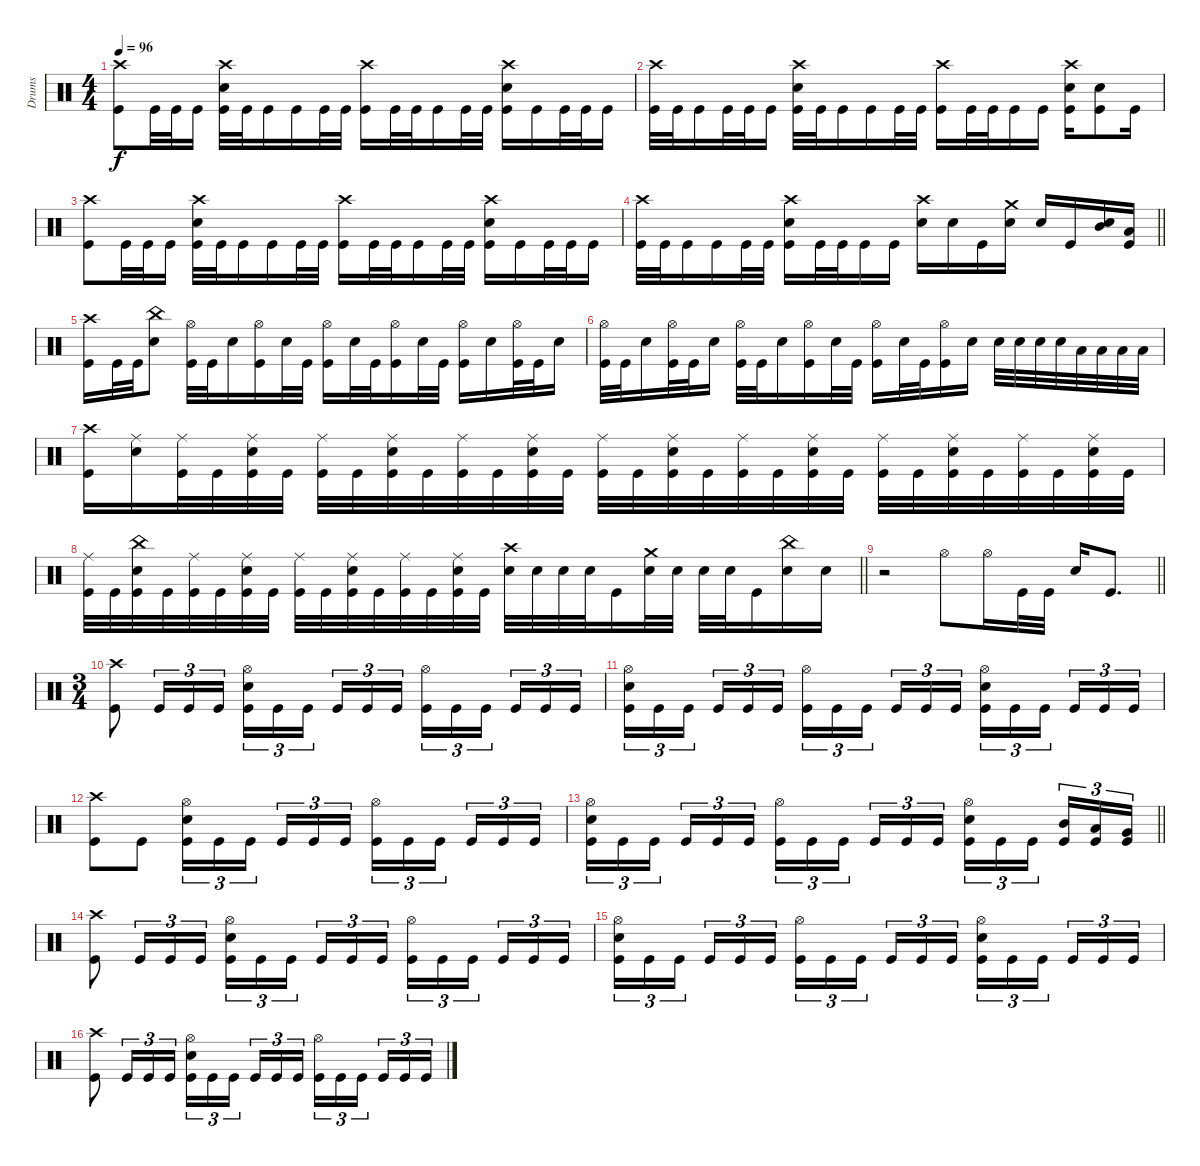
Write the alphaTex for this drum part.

\track ("Drums" "Drums") {instrument percussion}
\staff
\articulation defaults
\ts (4 4)
\section ("" "")
\tempo 96
\clef neutral
\ks c
("Crash high (hit)" "Kick (hit)").8{dy f} "Kick (hit)".32 "Kick (hit)".32 "Kick (hit)".16 ("Crash high (hit)" "Electric Snare (hit)" "Kick (hit)").32 "Kick (hit)".32 "Kick (hit)".16 "Kick (hit)".16 "Kick (hit)".32 "Kick (hit)".32 ("Crash high (hit)" "Kick (hit)").16 "Kick (hit)".32 "Kick (hit)".32 "Kick (hit)".16 "Kick (hit)".32 "Kick (hit)".32 ("Crash high (hit)" "Electric Snare (hit)" "Kick (hit)").16 "Kick (hit)".16 "Kick (hit)".32 "Kick (hit)".32 "Kick (hit)".16 |
("Crash high (hit)" "Kick (hit)").32 "Kick (hit)".32 "Kick (hit)".16 "Kick (hit)".32 "Kick (hit)".32 "Kick (hit)".16 ("Crash high (hit)" "Electric Snare (hit)" "Kick (hit)").32 "Kick (hit)".32 "Kick (hit)".16 "Kick (hit)".16 "Kick (hit)".32 "Kick (hit)".32 ("Crash high (hit)" "Kick (hit)").16 "Kick (hit)".32 "Kick (hit)".32 "Kick (hit)".16 "Kick (hit)".16 ("Crash high (hit)" "Electric Snare (hit)" "Kick (hit)").16 ("Electric Snare (hit)" "Kick (hit)").8 "Kick (hit)".16 |
("Crash high (hit)" "Kick (hit)").8 "Kick (hit)".32 "Kick (hit)".32 "Kick (hit)".16 ("Crash high (hit)" "Electric Snare (hit)" "Kick (hit)").32 "Kick (hit)".32 "Kick (hit)".16 "Kick (hit)".16 "Kick (hit)".32 "Kick (hit)".32 ("Crash high (hit)" "Kick (hit)").16 "Kick (hit)".32 "Kick (hit)".32 "Kick (hit)".16 "Kick (hit)".32 "Kick (hit)".32 ("Crash high (hit)" "Electric Snare (hit)" "Kick (hit)").16 "Kick (hit)".16 "Kick (hit)".32 "Kick (hit)".32 "Kick (hit)".16 |
\barLineRight lightlight
("Crash high (hit)" "Kick (hit)").32 "Kick (hit)".32 "Kick (hit)".16 "Kick (hit)".16 "Kick (hit)".32 "Kick (hit)".32 ("Crash high (hit)" "Electric Snare (hit)" "Kick (hit)").16 "Kick (hit)".32 "Kick (hit)".32 "Kick (hit)".16 "Kick (hit)".16 ("Crash high (hit)" "Electric Snare (hit)").16 "Electric Snare (hit)".16 "Kick (hit)".16 ("Crash medium (hit)" "Electric Snare (hit)").16 "Electric Snare (hit)".16 "Kick (hit)".16 ("Mid Tom (hit)" "Electric Snare (hit)").16 ("Low Tom (hit)" "Kick (hit)").16 |
("Crash high (hit)" "Kick (hit)").16 "Kick (hit)".32 "Kick (hit)".32 ("China (hit)" "Electric Snare (hit)").8 ("Hi-Hat (open)" "Kick (hit)").32 "Kick (hit)".32 "Electric Snare (hit)".16 ("Hi-Hat (open)" "Kick (hit)").16 "Electric Snare (hit)".32 "Kick (hit)".32 ("Hi-Hat (open)" "Kick (hit)").16 "Electric Snare (hit)".32 "Kick (hit)".32 ("Hi-Hat (open)" "Kick (hit)").16 "Electric Snare (hit)".32 "Kick (hit)".32 ("Hi-Hat (open)" "Kick (hit)").16 "Electric Snare (hit)".16 ("Hi-Hat (open)" "Kick (hit)").32 "Kick (hit)".32 "Electric Snare (hit)".16 |
("Hi-Hat (open)" "Kick (hit)").32 "Kick (hit)".32 "Electric Snare (hit)".16 ("Hi-Hat (open)" "Kick (hit)").32 "Kick (hit)".32 "Electric Snare (hit)".16 ("Hi-Hat (open)" "Kick (hit)").32 "Kick (hit)".32 "Electric Snare (hit)".16 ("Hi-Hat (open)" "Kick (hit)").16 "Electric Snare (hit)".32 "Kick (hit)".32 ("Hi-Hat (open)" "Kick (hit)").16 "Electric Snare (hit)".32 "Kick (hit)".32 ("Hi-Hat (open)" "Kick (hit)").16 "Electric Snare (hit)".16 "Electric Snare (hit)".32 "Electric Snare (hit)".32 "Electric Snare (hit)".32 "Electric Snare (hit)".32 "Low Tom (hit)".32 "Low Tom (hit)".32 "Low Tom (hit)".32 "Low Tom (hit)".32 |
("Crash high (hit)" "Kick (hit)").16 ("Ride (middle)" "Electric Snare (hit)").16 ("Ride (middle)" "Kick (hit)").32 "Kick (hit)".32 ("Ride (middle)" "Electric Snare (hit)" "Kick (hit)").32 "Kick (hit)".32 ("Ride (middle)" "Kick (hit)").32 "Kick (hit)".32 ("Ride (middle)" "Electric Snare (hit)" "Kick (hit)").32 "Kick (hit)".32 ("Ride (middle)" "Kick (hit)").32 "Kick (hit)".32 ("Ride (middle)" "Electric Snare (hit)" "Kick (hit)").32 "Kick (hit)".32 ("Ride (middle)" "Kick (hit)").32 "Kick (hit)".32 ("Ride (middle)" "Electric Snare (hit)" "Kick (hit)").32 "Kick (hit)".32 ("Ride (middle)" "Kick (hit)").32 "Kick (hit)".32 ("Ride (middle)" "Electric Snare (hit)" "Kick (hit)").32 "Kick (hit)".32 ("Ride (middle)" "Kick (hit)").32 "Kick (hit)".32 ("Ride (middle)" "Electric Snare (hit)" "Kick (hit)").32 "Kick (hit)".32 ("Ride (middle)" "Kick (hit)").32 "Kick (hit)".32 ("Ride (middle)" "Electric Snare (hit)" "Kick (hit)").32 "Kick (hit)".32 |
\barLineRight lightlight
("Ride (middle)" "Kick (hit)").32 "Kick (hit)".32 ("China (hit)" "Electric Snare (hit)" "Kick (hit)").32 "Kick (hit)".32 ("Ride (middle)" "Kick (hit)").32 "Kick (hit)".32 ("Ride (middle)" "Electric Snare (hit)" "Kick (hit)").32 "Kick (hit)".32 ("Ride (middle)" "Kick (hit)").32 "Kick (hit)".32 ("Ride (middle)" "Electric Snare (hit)" "Kick (hit)").32 "Kick (hit)".32 ("Ride (middle)" "Kick (hit)").32 "Kick (hit)".32 ("Ride (middle)" "Electric Snare (hit)" "Kick (hit)").32 "Kick (hit)".32 ("Crash high (hit)" "Electric Snare (hit)").32 "Electric Snare (hit)".32 "Electric Snare (hit)".32 "Electric Snare (hit)".32 "Kick (hit)".16 ("Crash medium (hit)" "Electric Snare (hit)").32 "Electric Snare (hit)".32 "Electric Snare (hit)".32 "Electric Snare (hit)".32 "Kick (hit)".16 ("China (hit)" "Electric Snare (hit)").16 "Electric Snare (hit)".16 |
\barLineRight lightlight
r.2 "Hi-Hat (open)".8 "Hi-Hat (open)".16 "Kick (hit)".32 "Kick (hit)".32 "Electric Snare (hit)".16 "Kick (hit)".8{d} |
\ts (3 4)
\section ("" "")
("Crash high (hit)" "Kick (hit)").8 "Kick (hit)".16{tu (3 2)} "Kick (hit)".16{tu (3 2)} "Kick (hit)".16{tu (3 2)} ("Hi-Hat (open)" "Electric Snare (hit)" "Kick (hit)").16{tu (3 2)} "Kick (hit)".16{tu (3 2)} "Kick (hit)".16{tu (3 2) beam splitsecondary} "Kick (hit)".16{tu (3 2)} "Kick (hit)".16{tu (3 2)} "Kick (hit)".16{tu (3 2)} ("Hi-Hat (open)" "Kick (hit)").16{tu (3 2)} "Kick (hit)".16{tu (3 2)} "Kick (hit)".16{tu (3 2) beam splitsecondary} "Kick (hit)".16{tu (3 2)} "Kick (hit)".16{tu (3 2)} "Kick (hit)".16{tu (3 2)} |
("Hi-Hat (open)" "Electric Snare (hit)" "Kick (hit)").16{tu (3 2)} "Kick (hit)".16{tu (3 2)} "Kick (hit)".16{tu (3 2) beam splitsecondary} "Kick (hit)".16{tu (3 2)} "Kick (hit)".16{tu (3 2)} "Kick (hit)".16{tu (3 2)} ("Hi-Hat (open)" "Kick (hit)").16{tu (3 2)} "Kick (hit)".16{tu (3 2)} "Kick (hit)".16{tu (3 2) beam splitsecondary} "Kick (hit)".16{tu (3 2)} "Kick (hit)".16{tu (3 2)} "Kick (hit)".16{tu (3 2)} ("Hi-Hat (open)" "Electric Snare (hit)" "Kick (hit)").16{tu (3 2)} "Kick (hit)".16{tu (3 2)} "Kick (hit)".16{tu (3 2) beam splitsecondary} "Kick (hit)".16{tu (3 2)} "Kick (hit)".16{tu (3 2)} "Kick (hit)".16{tu (3 2)} |
("Crash high (hit)" "Kick (hit)").8 "Kick (hit)".8 ("Hi-Hat (open)" "Electric Snare (hit)" "Kick (hit)").16{tu (3 2)} "Kick (hit)".16{tu (3 2)} "Kick (hit)".16{tu (3 2) beam splitsecondary} "Kick (hit)".16{tu (3 2)} "Kick (hit)".16{tu (3 2)} "Kick (hit)".16{tu (3 2)} ("Hi-Hat (open)" "Kick (hit)").16{tu (3 2)} "Kick (hit)".16{tu (3 2)} "Kick (hit)".16{tu (3 2) beam splitsecondary} "Kick (hit)".16{tu (3 2)} "Kick (hit)".16{tu (3 2)} "Kick (hit)".16{tu (3 2)} |
\barLineRight lightlight
("Hi-Hat (open)" "Electric Snare (hit)" "Kick (hit)").16{tu (3 2)} "Kick (hit)".16{tu (3 2)} "Kick (hit)".16{tu (3 2) beam splitsecondary} "Kick (hit)".16{tu (3 2)} "Kick (hit)".16{tu (3 2)} "Kick (hit)".16{tu (3 2)} ("Hi-Hat (open)" "Kick (hit)").16{tu (3 2)} "Kick (hit)".16{tu (3 2)} "Kick (hit)".16{tu (3 2) beam splitsecondary} "Kick (hit)".16{tu (3 2)} "Kick (hit)".16{tu (3 2)} "Kick (hit)".16{tu (3 2)} ("Hi-Hat (open)" "Electric Snare (hit)" "Kick (hit)").16{tu (3 2)} "Kick (hit)".16{tu (3 2)} "Kick (hit)".16{tu (3 2) beam splitsecondary} ("Mid Tom (hit)" "Kick (hit)").16{tu (3 2)} ("Low Tom (hit)" "Kick (hit)").16{tu (3 2)} ("Very Low Tom (hit)" "Kick (hit)").16{tu (3 2)} |
("Crash high (hit)" "Kick (hit)").8 "Kick (hit)".16{tu (3 2)} "Kick (hit)".16{tu (3 2)} "Kick (hit)".16{tu (3 2)} ("Hi-Hat (open)" "Electric Snare (hit)" "Kick (hit)").16{tu (3 2)} "Kick (hit)".16{tu (3 2)} "Kick (hit)".16{tu (3 2) beam splitsecondary} "Kick (hit)".16{tu (3 2)} "Kick (hit)".16{tu (3 2)} "Kick (hit)".16{tu (3 2)} ("Hi-Hat (open)" "Kick (hit)").16{tu (3 2)} "Kick (hit)".16{tu (3 2)} "Kick (hit)".16{tu (3 2) beam splitsecondary} "Kick (hit)".16{tu (3 2)} "Kick (hit)".16{tu (3 2)} "Kick (hit)".16{tu (3 2)} |
("Hi-Hat (open)" "Electric Snare (hit)" "Kick (hit)").16{tu (3 2)} "Kick (hit)".16{tu (3 2)} "Kick (hit)".16{tu (3 2) beam splitsecondary} "Kick (hit)".16{tu (3 2)} "Kick (hit)".16{tu (3 2)} "Kick (hit)".16{tu (3 2)} ("Hi-Hat (open)" "Kick (hit)").16{tu (3 2)} "Kick (hit)".16{tu (3 2)} "Kick (hit)".16{tu (3 2) beam splitsecondary} "Kick (hit)".16{tu (3 2)} "Kick (hit)".16{tu (3 2)} "Kick (hit)".16{tu (3 2)} ("Hi-Hat (open)" "Electric Snare (hit)" "Kick (hit)").16{tu (3 2)} "Kick (hit)".16{tu (3 2)} "Kick (hit)".16{tu (3 2) beam splitsecondary} "Kick (hit)".16{tu (3 2)} "Kick (hit)".16{tu (3 2)} "Kick (hit)".16{tu (3 2)} |
("Crash high (hit)" "Kick (hit)").8 "Kick (hit)".16{tu (3 2)} "Kick (hit)".16{tu (3 2)} "Kick (hit)".16{tu (3 2)} ("Hi-Hat (open)" "Electric Snare (hit)" "Kick (hit)").16{tu (3 2)} "Kick (hit)".16{tu (3 2)} "Kick (hit)".16{tu (3 2) beam splitsecondary} "Kick (hit)".16{tu (3 2)} "Kick (hit)".16{tu (3 2)} "Kick (hit)".16{tu (3 2)} ("Hi-Hat (open)" "Kick (hit)").16{tu (3 2)} "Kick (hit)".16{tu (3 2)} "Kick (hit)".16{tu (3 2) beam splitsecondary} "Kick (hit)".16{tu (3 2)} "Kick (hit)".16{tu (3 2)} "Kick (hit)".16{tu (3 2)}
